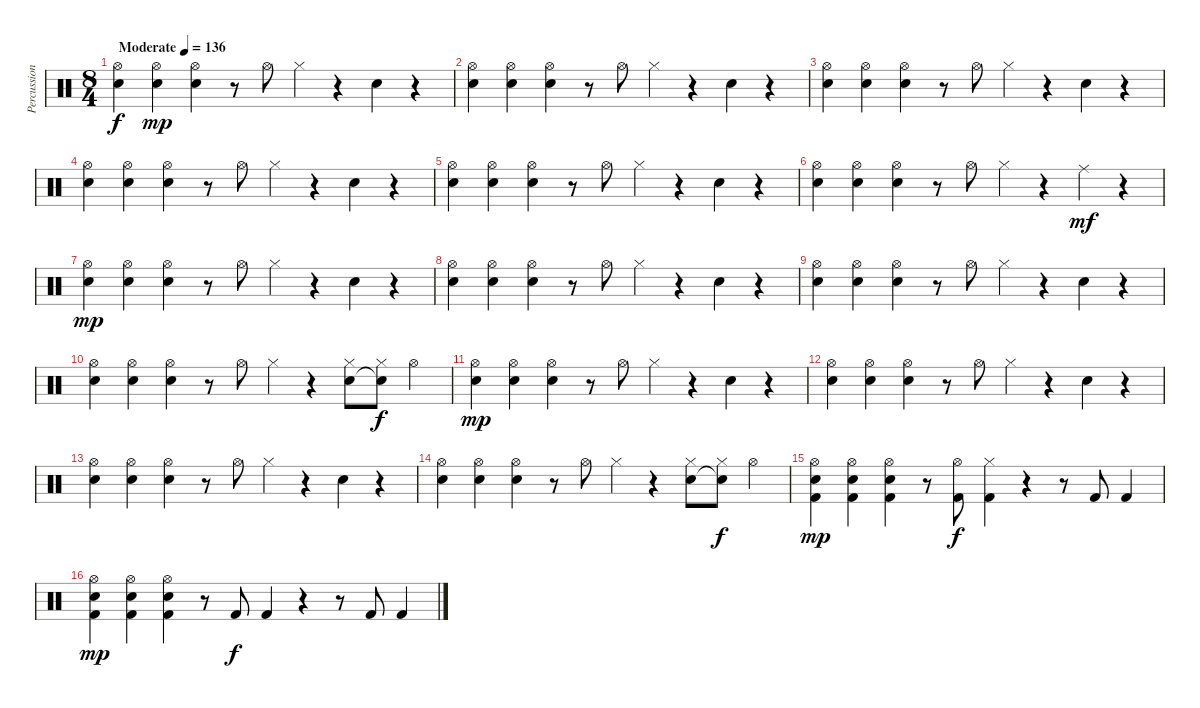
\track ("Percussion" "Percussion") {instrument percussion}
\staff {score}
\articulation defaults
\ts (8 4)
\tempo (136 "Moderate")
\clef neutral
\ks c
("Hi-Hat (open)" "Snare (hit) 2").4{dy f} ("Hi-Hat (open)" "Snare (hit) 2").4{dy mp} ("Hi-Hat (open)" "Snare (hit) 2").4 r.8 "Hi-Hat (open)".8 "Hi-Hat (closed)".4 r.4 "Snare (hit) 2".4 r.4 |
("Hi-Hat (open)" "Snare (hit) 2").4 ("Hi-Hat (open)" "Snare (hit) 2").4 ("Hi-Hat (open)" "Snare (hit) 2").4 r.8 "Hi-Hat (open)".8 "Hi-Hat (closed)".4 r.4 "Snare (hit) 2".4 r.4 |
("Hi-Hat (open)" "Snare (hit) 2").4 ("Hi-Hat (open)" "Snare (hit) 2").4 ("Hi-Hat (open)" "Snare (hit) 2").4 r.8 "Hi-Hat (open)".8 "Hi-Hat (closed)".4 r.4 "Snare (hit) 2".4 r.4 |
("Hi-Hat (open)" "Snare (hit) 2").4 ("Hi-Hat (open)" "Snare (hit) 2").4 ("Hi-Hat (open)" "Snare (hit) 2").4 r.8 "Hi-Hat (open)".8 "Hi-Hat (closed)".4 r.4 "Snare (hit) 2".4 r.4 |
("Hi-Hat (open)" "Snare (hit) 2").4 ("Hi-Hat (open)" "Snare (hit) 2").4 ("Hi-Hat (open)" "Snare (hit) 2").4 r.8 "Hi-Hat (open)".8 "Hi-Hat (closed)".4 r.4 "Snare (hit) 2".4 r.4 |
("Hi-Hat (open)" "Snare (hit) 2").4 ("Hi-Hat (open)" "Snare (hit) 2").4 ("Hi-Hat (open)" "Snare (hit) 2").4 r.8 "Hi-Hat (open)".8 "Hi-Hat (closed)".4 r.4 "Ride (middle)".4{dy mf} r.4 |
("Hi-Hat (open)" "Snare (hit) 2").4{dy mp} ("Hi-Hat (open)" "Snare (hit) 2").4 ("Hi-Hat (open)" "Snare (hit) 2").4 r.8 "Hi-Hat (open)".8 "Hi-Hat (closed)".4 r.4 "Snare (hit) 2".4 r.4 |
("Hi-Hat (open)" "Snare (hit) 2").4 ("Hi-Hat (open)" "Snare (hit) 2").4 ("Hi-Hat (open)" "Snare (hit) 2").4 r.8 "Hi-Hat (open)".8 "Hi-Hat (closed)".4 r.4 "Snare (hit) 2".4 r.4 |
("Hi-Hat (open)" "Snare (hit) 2").4 ("Hi-Hat (open)" "Snare (hit) 2").4 ("Hi-Hat (open)" "Snare (hit) 2").4 r.8 "Hi-Hat (open)".8 "Hi-Hat (closed)".4 r.4 "Snare (hit) 2".4 r.4 |
("Hi-Hat (open)" "Snare (hit) 2").4 ("Hi-Hat (open)" "Snare (hit) 2").4 ("Hi-Hat (open)" "Snare (hit) 2").4 r.8 "Hi-Hat (open)".8 "Hi-Hat (closed)".4 r.4 ("Hi-Hat (closed)" "Snare (hit) 2").8 ("Hi-Hat (closed)" "Snare (hit)"{t}).8{dy f} "Hi-Hat (open)".4 |
("Hi-Hat (open)" "Snare (hit) 2").4{dy mp} ("Hi-Hat (open)" "Snare (hit) 2").4 ("Hi-Hat (open)" "Snare (hit) 2").4 r.8 "Hi-Hat (open)".8 "Hi-Hat (closed)".4 r.4 "Snare (hit) 2".4 r.4 |
("Hi-Hat (open)" "Snare (hit) 2").4 ("Hi-Hat (open)" "Snare (hit) 2").4 ("Hi-Hat (open)" "Snare (hit) 2").4 r.8 "Hi-Hat (open)".8 "Hi-Hat (closed)".4 r.4 "Snare (hit) 2".4 r.4 |
("Hi-Hat (open)" "Snare (hit) 2").4 ("Hi-Hat (open)" "Snare (hit) 2").4 ("Hi-Hat (open)" "Snare (hit) 2").4 r.8 "Hi-Hat (open)".8 "Hi-Hat (closed)".4 r.4 "Snare (hit) 2".4 r.4 |
("Hi-Hat (open)" "Snare (hit) 2").4 ("Hi-Hat (open)" "Snare (hit) 2").4 ("Hi-Hat (open)" "Snare (hit) 2").4 r.8 "Hi-Hat (open)".8 "Hi-Hat (closed)".4 r.4 ("Hi-Hat (closed)" "Snare (hit) 2").8 ("Hi-Hat (closed)" "Snare (hit)"{t}).8{dy f} "Hi-Hat (open)".4 |
("Hi-Hat (open)" "Snare (hit) 2" "Kick (hit) 2").4{dy mp} ("Hi-Hat (open)" "Snare (hit) 2" "Kick (hit) 2").4 ("Hi-Hat (open)" "Snare (hit) 2" "Kick (hit) 2").4 r.8 ("Hi-Hat (open)" "Kick (hit) 2").8{dy f} ("Hi-Hat (closed)" "Kick (hit) 2").4 r.4 r.8 "Kick (hit) 2".8 "Kick (hit) 2".4 |
("Hi-Hat (open)" "Snare (hit) 2" "Kick (hit) 2").4{dy mp} ("Hi-Hat (open)" "Snare (hit) 2" "Kick (hit) 2").4 ("Hi-Hat (open)" "Snare (hit) 2" "Kick (hit) 2").4 r.8 "Kick (hit) 2".8{dy f} "Kick (hit) 2".4 r.4 r.8 "Kick (hit) 2".8 "Kick (hit) 2".4
